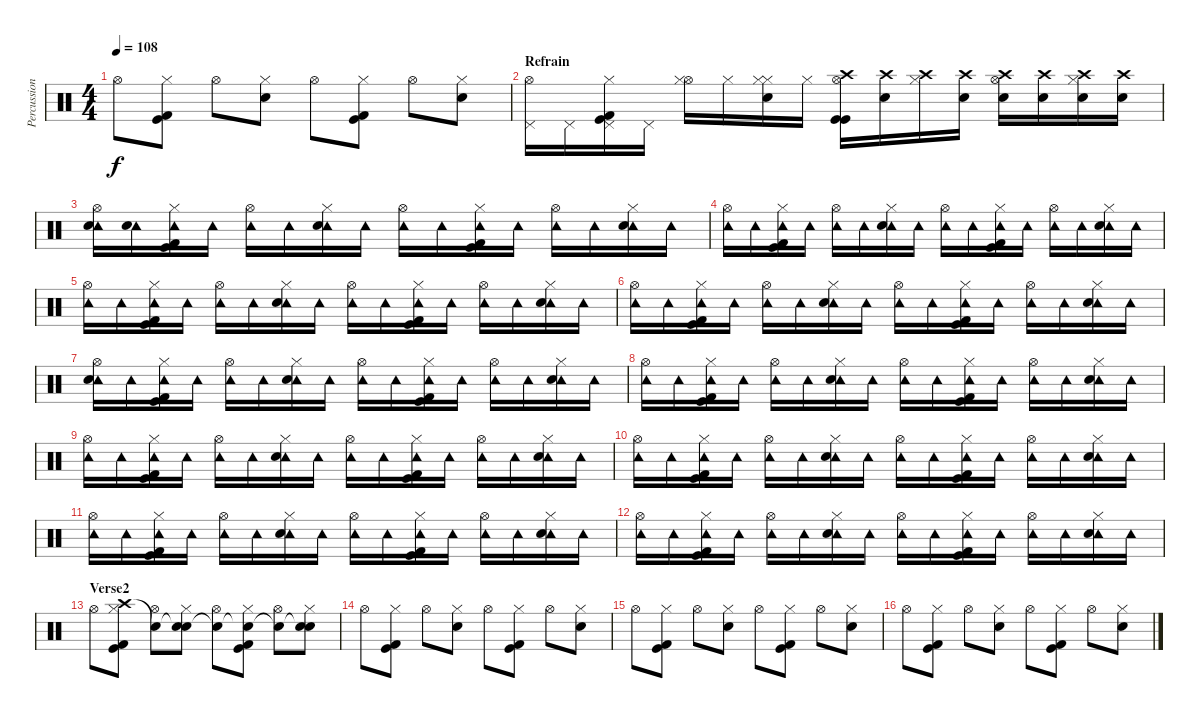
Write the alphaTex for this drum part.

\track ("Percussion" "Percussion") {instrument percussion}
\staff {score}
\articulation defaults
\ts (4 4)
\tempo 108
\clef neutral
\ks c "Hi-Hat (open)".8{dy f}
("Hi-Hat (closed)" "Kick (hit)" "Kick (hit) 2").8 "Hi-Hat (open)".8 ("Hi-Hat (closed)" "Snare (hit) 2").8 "Hi-Hat (open)".8 ("Hi-Hat (closed)" "Kick (hit)" "Kick (hit) 2").8 "Hi-Hat (open)".8 ("Hi-Hat (closed)" "Snare (hit) 2").8 |
\section ("" "Refrain")
("Hi-Hat (open)" "Pedal Hi-Hat (hit)").16 "Pedal Hi-Hat (hit)".16 ("Hi-Hat (closed)" "Pedal Hi-Hat (hit)" "Kick (hit)" "Kick (hit) 2").16 "Pedal Hi-Hat (hit)".16 ("Hi-Hat (open)" "Hi-Hat (closed)").16 "Hi-Hat (closed)".16 ("Hi-Hat (closed)" "Hi-Hat (closed)" "Snare (hit) 2").16 "Hi-Hat (closed)".16 ("Hi-Hat (open)" "Crash high (hit)" "Kick (hit)" "Kick (hit)").16 ("Crash high (hit)" "Snare (hit) 2").16 ("Hi-Hat (closed)" "Crash high (hit)").16 ("Crash high (hit)" "Snare (hit) 2").16 ("Hi-Hat (open)" "Crash high (hit)" "Snare (hit) 2").16 ("Crash high (hit)" "Snare (hit) 2").16 ("Hi-Hat (closed)" "Crash high (hit)" "Snare (hit) 2").16 ("Crash high (hit)" "Snare (hit) 2").16 |
("Hi-Hat (open)" "Tambourine (hit)" "Snare (hit) 2").16 ("Tambourine (hit)" "Snare (hit) 2").16 ("Hi-Hat (closed)" "Tambourine (hit)" "Kick (hit)" "Kick (hit) 2").16 "Tambourine (hit)".16 ("Hi-Hat (open)" "Tambourine (hit)").16 "Tambourine (hit)".16 ("Hi-Hat (closed)" "Tambourine (hit)" "Snare (hit) 2").16 "Tambourine (hit)".16 ("Hi-Hat (open)" "Tambourine (hit)").16 "Tambourine (hit)".16 ("Hi-Hat (closed)" "Tambourine (hit)" "Kick (hit)" "Kick (hit) 2").16 "Tambourine (hit)".16 ("Hi-Hat (open)" "Tambourine (hit)").16 "Tambourine (hit)".16 ("Hi-Hat (closed)" "Tambourine (hit)" "Snare (hit) 2").16 "Tambourine (hit)".16 |
("Hi-Hat (open)" "Tambourine (hit)").16 "Tambourine (hit)".16 ("Hi-Hat (closed)" "Tambourine (hit)" "Kick (hit)" "Kick (hit) 2").16 "Tambourine (hit)".16 ("Hi-Hat (open)" "Tambourine (hit)").16 "Tambourine (hit)".16 ("Hi-Hat (closed)" "Tambourine (hit)" "Snare (hit) 2").16 "Tambourine (hit)".16 ("Hi-Hat (open)" "Tambourine (hit)").16 "Tambourine (hit)".16 ("Hi-Hat (closed)" "Tambourine (hit)" "Kick (hit)" "Kick (hit) 2").16 "Tambourine (hit)".16 ("Hi-Hat (open)" "Tambourine (hit)").16 "Tambourine (hit)".16 ("Hi-Hat (closed)" "Tambourine (hit)" "Snare (hit) 2").16 "Tambourine (hit)".16 |
("Hi-Hat (open)" "Tambourine (hit)").16 "Tambourine (hit)".16 ("Hi-Hat (closed)" "Tambourine (hit)" "Kick (hit)" "Kick (hit) 2").16 "Tambourine (hit)".16 ("Hi-Hat (open)" "Tambourine (hit)").16 "Tambourine (hit)".16 ("Hi-Hat (closed)" "Tambourine (hit)" "Snare (hit) 2").16 "Tambourine (hit)".16 ("Hi-Hat (open)" "Tambourine (hit)").16 "Tambourine (hit)".16 ("Hi-Hat (closed)" "Tambourine (hit)" "Kick (hit)" "Kick (hit) 2").16 "Tambourine (hit)".16 ("Hi-Hat (open)" "Tambourine (hit)").16 "Tambourine (hit)".16 ("Hi-Hat (closed)" "Tambourine (hit)" "Snare (hit) 2").16 "Tambourine (hit)".16 |
("Hi-Hat (open)" "Tambourine (hit)").16 "Tambourine (hit)".16 ("Hi-Hat (closed)" "Tambourine (hit)" "Kick (hit)" "Kick (hit) 2").16 "Tambourine (hit)".16 ("Hi-Hat (open)" "Tambourine (hit)").16 "Tambourine (hit)".16 ("Hi-Hat (closed)" "Tambourine (hit)" "Snare (hit) 2").16 "Tambourine (hit)".16 ("Hi-Hat (open)" "Tambourine (hit)").16 "Tambourine (hit)".16 ("Hi-Hat (closed)" "Tambourine (hit)" "Kick (hit)" "Kick (hit) 2").16 "Tambourine (hit)".16 ("Hi-Hat (open)" "Tambourine (hit)").16 "Tambourine (hit)".16 ("Hi-Hat (closed)" "Tambourine (hit)" "Snare (hit) 2").16 "Tambourine (hit)".16 |
("Hi-Hat (open)" "Tambourine (hit)" "Snare (hit) 2").16 "Tambourine (hit)".16 ("Hi-Hat (closed)" "Tambourine (hit)" "Kick (hit)" "Kick (hit) 2").16 "Tambourine (hit)".16 ("Hi-Hat (open)" "Tambourine (hit)").16 "Tambourine (hit)".16 ("Hi-Hat (closed)" "Tambourine (hit)" "Snare (hit) 2").16 "Tambourine (hit)".16 ("Hi-Hat (open)" "Tambourine (hit)").16 "Tambourine (hit)".16 ("Hi-Hat (closed)" "Tambourine (hit)" "Kick (hit)" "Kick (hit) 2").16 "Tambourine (hit)".16 ("Hi-Hat (open)" "Tambourine (hit)").16 "Tambourine (hit)".16 ("Hi-Hat (closed)" "Tambourine (hit)" "Snare (hit) 2").16 "Tambourine (hit)".16 |
("Hi-Hat (open)" "Tambourine (hit)").16 "Tambourine (hit)".16 ("Hi-Hat (closed)" "Tambourine (hit)" "Kick (hit)" "Kick (hit) 2").16 "Tambourine (hit)".16 ("Hi-Hat (open)" "Tambourine (hit)").16 "Tambourine (hit)".16 ("Hi-Hat (closed)" "Tambourine (hit)" "Snare (hit) 2").16 "Tambourine (hit)".16 ("Hi-Hat (open)" "Tambourine (hit)").16 "Tambourine (hit)".16 ("Hi-Hat (closed)" "Tambourine (hit)" "Kick (hit)" "Kick (hit) 2").16 "Tambourine (hit)".16 ("Hi-Hat (open)" "Tambourine (hit)").16 "Tambourine (hit)".16 ("Hi-Hat (closed)" "Tambourine (hit)" "Snare (hit) 2").16 "Tambourine (hit)".16 |
("Hi-Hat (open)" "Tambourine (hit)").16 "Tambourine (hit)".16 ("Hi-Hat (closed)" "Tambourine (hit)" "Kick (hit)" "Kick (hit) 2").16 "Tambourine (hit)".16 ("Hi-Hat (open)" "Tambourine (hit)").16 "Tambourine (hit)".16 ("Hi-Hat (closed)" "Tambourine (hit)" "Snare (hit) 2").16 "Tambourine (hit)".16 ("Hi-Hat (open)" "Tambourine (hit)").16 "Tambourine (hit)".16 ("Hi-Hat (closed)" "Tambourine (hit)" "Kick (hit)" "Kick (hit) 2").16 "Tambourine (hit)".16 ("Hi-Hat (open)" "Tambourine (hit)").16 "Tambourine (hit)".16 ("Hi-Hat (closed)" "Tambourine (hit)" "Snare (hit) 2").16 "Tambourine (hit)".16 |
("Hi-Hat (open)" "Tambourine (hit)").16 "Tambourine (hit)".16 ("Hi-Hat (closed)" "Tambourine (hit)" "Kick (hit)" "Kick (hit) 2").16 "Tambourine (hit)".16 ("Hi-Hat (open)" "Tambourine (hit)").16 "Tambourine (hit)".16 ("Hi-Hat (closed)" "Tambourine (hit)" "Snare (hit) 2").16 "Tambourine (hit)".16 ("Hi-Hat (open)" "Tambourine (hit)").16 "Tambourine (hit)".16 ("Hi-Hat (closed)" "Tambourine (hit)" "Kick (hit)" "Kick (hit) 2").16 "Tambourine (hit)".16 ("Hi-Hat (open)" "Tambourine (hit)").16 "Tambourine (hit)".16 ("Hi-Hat (closed)" "Tambourine (hit)" "Snare (hit) 2").16 "Tambourine (hit)".16 |
("Hi-Hat (open)" "Tambourine (hit)").16 "Tambourine (hit)".16 ("Hi-Hat (closed)" "Tambourine (hit)" "Kick (hit)" "Kick (hit) 2").16 "Tambourine (hit)".16 ("Hi-Hat (open)" "Tambourine (hit)").16 "Tambourine (hit)".16 ("Hi-Hat (closed)" "Tambourine (hit)" "Snare (hit) 2").16 "Tambourine (hit)".16 ("Hi-Hat (open)" "Tambourine (hit)").16 "Tambourine (hit)".16 ("Hi-Hat (closed)" "Tambourine (hit)" "Kick (hit)" "Kick (hit) 2").16 "Tambourine (hit)".16 ("Hi-Hat (open)" "Tambourine (hit)").16 "Tambourine (hit)".16 ("Hi-Hat (closed)" "Tambourine (hit)" "Snare (hit) 2").16 "Tambourine (hit)".16 |
("Hi-Hat (open)" "Tambourine (hit)").16 "Tambourine (hit)".16 ("Hi-Hat (closed)" "Tambourine (hit)" "Kick (hit)" "Kick (hit) 2").16 "Tambourine (hit)".16 ("Hi-Hat (open)" "Tambourine (hit)").16 "Tambourine (hit)".16 ("Hi-Hat (closed)" "Tambourine (hit)" "Snare (hit) 2").16 "Tambourine (hit)".16 ("Hi-Hat (open)" "Tambourine (hit)").16 "Tambourine (hit)".16 ("Hi-Hat (closed)" "Tambourine (hit)" "Kick (hit)" "Kick (hit) 2").16 "Tambourine (hit)".16 ("Hi-Hat (open)" "Tambourine (hit)").16 "Tambourine (hit)".16 ("Hi-Hat (closed)" "Tambourine (hit)" "Snare (hit) 2").16 "Tambourine (hit)".16 |
\section ("" "Verse2")
"Hi-Hat (open)".8 ("Hi-Hat (closed)" "Crash high (hit)" "Kick (hit)" "Kick (hit) 2").8 ("Hi-Hat (open)" "Snare (hit)"{t}).8 ("Hi-Hat (closed)" "Snare (hit)"{t} "Snare (hit) 2").8 ("Hi-Hat (open)" "Snare (hit)"{t}).8 ("Hi-Hat (closed)" "Snare (hit)"{t} "Kick (hit)" "Kick (hit) 2").8 ("Hi-Hat (open)" "Snare (hit)"{t}).8 ("Hi-Hat (closed)" "Snare (hit)"{t} "Snare (hit) 2").8 |
"Hi-Hat (open)".8 ("Hi-Hat (closed)" "Kick (hit)" "Kick (hit) 2").8 "Hi-Hat (open)".8 ("Hi-Hat (closed)" "Snare (hit) 2").8 "Hi-Hat (open)".8 ("Hi-Hat (closed)" "Kick (hit)" "Kick (hit) 2").8 "Hi-Hat (open)".8 ("Hi-Hat (closed)" "Snare (hit) 2").8 |
"Hi-Hat (open)".8 ("Hi-Hat (closed)" "Kick (hit)" "Kick (hit) 2").8 "Hi-Hat (open)".8 ("Hi-Hat (closed)" "Snare (hit) 2").8 "Hi-Hat (open)".8 ("Hi-Hat (closed)" "Kick (hit)" "Kick (hit) 2").8 "Hi-Hat (open)".8 ("Hi-Hat (closed)" "Snare (hit) 2").8 |
"Hi-Hat (open)".8 ("Hi-Hat (closed)" "Kick (hit)" "Kick (hit) 2").8 "Hi-Hat (open)".8 ("Hi-Hat (closed)" "Snare (hit) 2").8 "Hi-Hat (open)".8 ("Hi-Hat (closed)" "Kick (hit)" "Kick (hit) 2").8 "Hi-Hat (open)".8 ("Hi-Hat (closed)" "Snare (hit) 2").8
